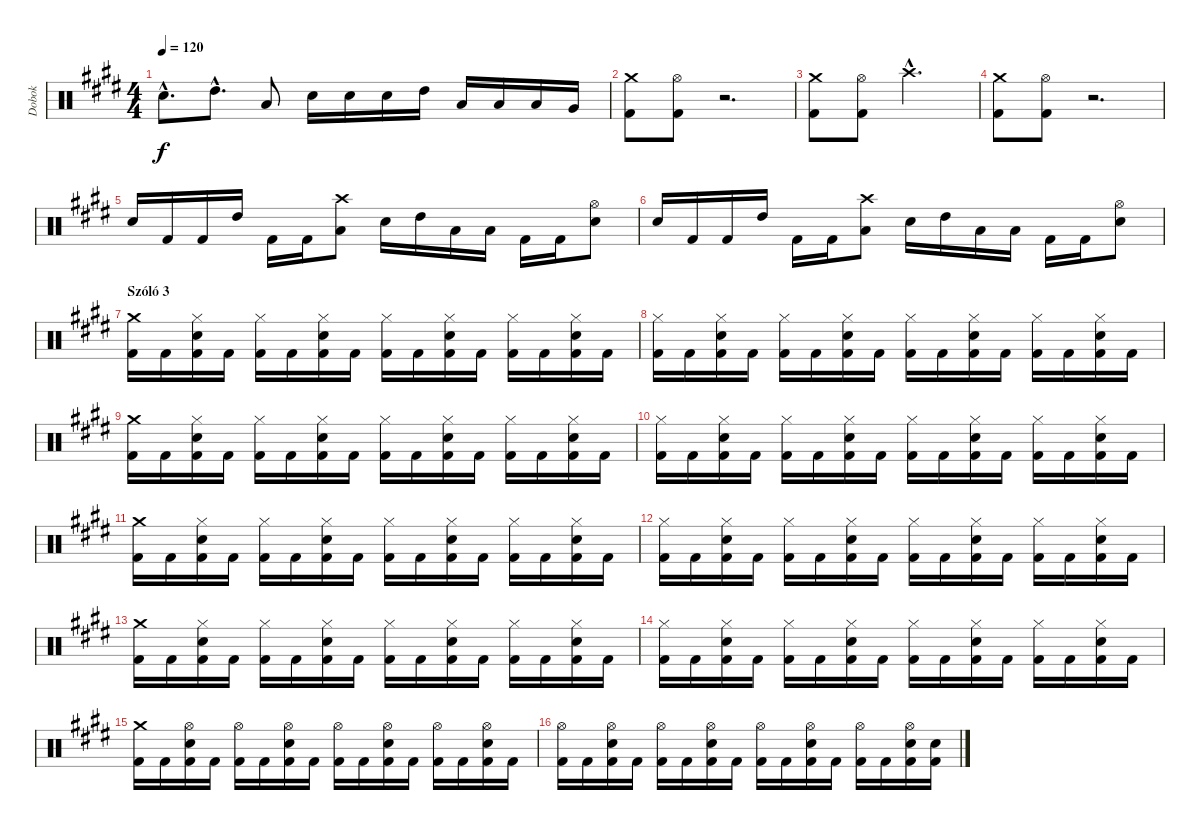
\track ("Dobok" "Dobok") {instrument percussion}
\staff {score}
\articulation defaults
\ts (4 4)
\tempo 120
\clef neutral
\ks c#minor "Snare (hit) 2"{hac}.8{d dy f} "High Tom (hit)"{hac}.8{d} "Low Tom (hit)".8 "Snare (hit) 2".16 "Snare (hit) 2".16 "Snare (hit) 2".16 "High Tom (hit)".16 "Low Tom (hit)".16 "Low Tom (hit)".16 "Low Tom (hit)".16 "Very Low Tom (hit)".16
|
("Crash medium (hit)" "Kick (hit) 2").8 ("Hi-Hat (open)" "Kick (hit) 2").8 r.2{d} |
("Crash medium (hit)" "Kick (hit) 2").8 ("Hi-Hat (open)" "Kick (hit) 2").8 "Crash high (hit)"{hac}.2{d} |
("Crash medium (hit)" "Kick (hit) 2").8 ("Hi-Hat (open)" "Kick (hit) 2").8 r.2{d} |
"Snare (hit) 2".16 "Kick (hit) 2".16 "Kick (hit) 2".16 "High Tom (hit)".16 "Kick (hit) 2".16 "Kick (hit) 2".16 ("Crash high (hit)" "Low Tom (hit)").8 "Snare (hit) 2".16 "High Tom (hit)".16 "Low Tom (hit)".16 "Low Tom (hit)".16 "Kick (hit) 2".16 "Kick (hit) 2".16 ("Hi-Hat (open)" "Snare (hit) 2").8 |
"Snare (hit) 2".16 "Kick (hit) 2".16 "Kick (hit) 2".16 "High Tom (hit)".16 "Kick (hit) 2".16 "Kick (hit) 2".16 ("Crash high (hit)" "Low Tom (hit)").8 "Snare (hit) 2".16 "High Tom (hit)".16 "Low Tom (hit)".16 "Low Tom (hit)".16 "Kick (hit) 2".16 "Kick (hit) 2".16 ("Hi-Hat (open)" "Snare (hit) 2").8 |
\section ("" "Szóló 3")
("Crash medium (hit)" "Kick (hit) 2").16 "Kick (hit) 2".16 ("Hi-Hat (closed)" "Snare (hit) 2" "Kick (hit) 2").16 "Kick (hit) 2".16 ("Hi-Hat (closed)" "Kick (hit) 2").16 "Kick (hit) 2".16 ("Hi-Hat (closed)" "Snare (hit) 2" "Kick (hit) 2").16 "Kick (hit) 2".16 ("Hi-Hat (closed)" "Kick (hit) 2").16 "Kick (hit) 2".16 ("Hi-Hat (closed)" "Snare (hit) 2" "Kick (hit) 2").16 "Kick (hit) 2".16 ("Hi-Hat (closed)" "Kick (hit) 2").16 "Kick (hit) 2".16 ("Hi-Hat (closed)" "Snare (hit) 2" "Kick (hit) 2").16 "Kick (hit) 2".16 |
("Hi-Hat (closed)" "Kick (hit) 2").16 "Kick (hit) 2".16 ("Hi-Hat (closed)" "Snare (hit) 2" "Kick (hit) 2").16 "Kick (hit) 2".16 ("Hi-Hat (closed)" "Kick (hit) 2").16 "Kick (hit) 2".16 ("Hi-Hat (closed)" "Snare (hit) 2" "Kick (hit) 2").16 "Kick (hit) 2".16 ("Hi-Hat (closed)" "Kick (hit) 2").16 "Kick (hit) 2".16 ("Hi-Hat (closed)" "Snare (hit) 2" "Kick (hit) 2").16 "Kick (hit) 2".16 ("Hi-Hat (closed)" "Kick (hit) 2").16 "Kick (hit) 2".16 ("Hi-Hat (closed)" "Snare (hit) 2" "Kick (hit) 2").16 "Kick (hit) 2".16 |
("Crash medium (hit)" "Kick (hit) 2").16 "Kick (hit) 2".16 ("Hi-Hat (closed)" "Snare (hit) 2" "Kick (hit) 2").16 "Kick (hit) 2".16 ("Hi-Hat (closed)" "Kick (hit) 2").16 "Kick (hit) 2".16 ("Hi-Hat (closed)" "Snare (hit) 2" "Kick (hit) 2").16 "Kick (hit) 2".16 ("Hi-Hat (closed)" "Kick (hit) 2").16 "Kick (hit) 2".16 ("Hi-Hat (closed)" "Snare (hit) 2" "Kick (hit) 2").16 "Kick (hit) 2".16 ("Hi-Hat (closed)" "Kick (hit) 2").16 "Kick (hit) 2".16 ("Hi-Hat (closed)" "Snare (hit) 2" "Kick (hit) 2").16 "Kick (hit) 2".16 |
("Hi-Hat (closed)" "Kick (hit) 2").16 "Kick (hit) 2".16 ("Hi-Hat (closed)" "Snare (hit) 2" "Kick (hit) 2").16 "Kick (hit) 2".16 ("Hi-Hat (closed)" "Kick (hit) 2").16 "Kick (hit) 2".16 ("Hi-Hat (closed)" "Snare (hit) 2" "Kick (hit) 2").16 "Kick (hit) 2".16 ("Hi-Hat (closed)" "Kick (hit) 2").16 "Kick (hit) 2".16 ("Hi-Hat (closed)" "Snare (hit) 2" "Kick (hit) 2").16 "Kick (hit) 2".16 ("Hi-Hat (closed)" "Kick (hit) 2").16 "Kick (hit) 2".16 ("Hi-Hat (closed)" "Snare (hit) 2" "Kick (hit) 2").16 "Kick (hit) 2".16 |
("Crash medium (hit)" "Kick (hit) 2").16 "Kick (hit) 2".16 ("Hi-Hat (closed)" "Snare (hit) 2" "Kick (hit) 2").16 "Kick (hit) 2".16 ("Hi-Hat (closed)" "Kick (hit) 2").16 "Kick (hit) 2".16 ("Hi-Hat (closed)" "Snare (hit) 2" "Kick (hit) 2").16 "Kick (hit) 2".16 ("Hi-Hat (closed)" "Kick (hit) 2").16 "Kick (hit) 2".16 ("Hi-Hat (closed)" "Snare (hit) 2" "Kick (hit) 2").16 "Kick (hit) 2".16 ("Hi-Hat (closed)" "Kick (hit) 2").16 "Kick (hit) 2".16 ("Hi-Hat (closed)" "Snare (hit) 2" "Kick (hit) 2").16 "Kick (hit) 2".16 |
("Hi-Hat (closed)" "Kick (hit) 2").16 "Kick (hit) 2".16 ("Hi-Hat (closed)" "Snare (hit) 2" "Kick (hit) 2").16 "Kick (hit) 2".16 ("Hi-Hat (closed)" "Kick (hit) 2").16 "Kick (hit) 2".16 ("Hi-Hat (closed)" "Snare (hit) 2" "Kick (hit) 2").16 "Kick (hit) 2".16 ("Hi-Hat (closed)" "Kick (hit) 2").16 "Kick (hit) 2".16 ("Hi-Hat (closed)" "Snare (hit) 2" "Kick (hit) 2").16 "Kick (hit) 2".16 ("Hi-Hat (closed)" "Kick (hit) 2").16 "Kick (hit) 2".16 ("Hi-Hat (closed)" "Snare (hit) 2" "Kick (hit) 2").16 "Kick (hit) 2".16 |
("Crash medium (hit)" "Kick (hit) 2").16 "Kick (hit) 2".16 ("Hi-Hat (closed)" "Snare (hit) 2" "Kick (hit) 2").16 "Kick (hit) 2".16 ("Hi-Hat (closed)" "Kick (hit) 2").16 "Kick (hit) 2".16 ("Hi-Hat (closed)" "Snare (hit) 2" "Kick (hit) 2").16 "Kick (hit) 2".16 ("Hi-Hat (closed)" "Kick (hit) 2").16 "Kick (hit) 2".16 ("Hi-Hat (closed)" "Snare (hit) 2" "Kick (hit) 2").16 "Kick (hit) 2".16 ("Hi-Hat (closed)" "Kick (hit) 2").16 "Kick (hit) 2".16 ("Hi-Hat (closed)" "Snare (hit) 2" "Kick (hit) 2").16 "Kick (hit) 2".16 |
("Hi-Hat (closed)" "Kick (hit) 2").16 "Kick (hit) 2".16 ("Hi-Hat (closed)" "Snare (hit) 2" "Kick (hit) 2").16 "Kick (hit) 2".16 ("Hi-Hat (closed)" "Kick (hit) 2").16 "Kick (hit) 2".16 ("Hi-Hat (closed)" "Snare (hit) 2" "Kick (hit) 2").16 "Kick (hit) 2".16 ("Hi-Hat (closed)" "Kick (hit) 2").16 "Kick (hit) 2".16 ("Hi-Hat (closed)" "Snare (hit) 2" "Kick (hit) 2").16 "Kick (hit) 2".16 ("Hi-Hat (closed)" "Kick (hit) 2").16 "Kick (hit) 2".16 ("Hi-Hat (closed)" "Snare (hit) 2" "Kick (hit) 2").16 "Kick (hit) 2".16 |
("Crash medium (hit)" "Kick (hit) 2").16 "Kick (hit) 2".16 ("Hi-Hat (open)" "Snare (hit) 2" "Kick (hit) 2").16 "Kick (hit) 2".16 ("Hi-Hat (open)" "Kick (hit) 2").16 "Kick (hit) 2".16 ("Hi-Hat (open)" "Snare (hit) 2" "Kick (hit) 2").16 "Kick (hit) 2".16 ("Hi-Hat (open)" "Kick (hit) 2").16 "Kick (hit) 2".16 ("Hi-Hat (open)" "Snare (hit) 2" "Kick (hit) 2").16 "Kick (hit) 2".16 ("Hi-Hat (open)" "Kick (hit) 2").16 "Kick (hit) 2".16 ("Hi-Hat (open)" "Snare (hit) 2" "Kick (hit) 2").16 "Kick (hit) 2".16 |
("Hi-Hat (open)" "Kick (hit) 2").16 "Kick (hit) 2".16 ("Hi-Hat (open)" "Snare (hit) 2" "Kick (hit) 2").16 "Kick (hit) 2".16 ("Hi-Hat (open)" "Kick (hit) 2").16 "Kick (hit) 2".16 ("Hi-Hat (open)" "Snare (hit) 2" "Kick (hit) 2").16 "Kick (hit) 2".16 ("Hi-Hat (open)" "Kick (hit) 2").16 "Kick (hit) 2".16 ("Hi-Hat (open)" "Snare (hit) 2" "Kick (hit) 2").16 "Kick (hit) 2".16 ("Hi-Hat (open)" "Kick (hit) 2").16 "Kick (hit) 2".16 ("Hi-Hat (open)" "Snare (hit) 2" "Kick (hit) 2").16 ("Snare (hit) 2" "Kick (hit) 2").16
